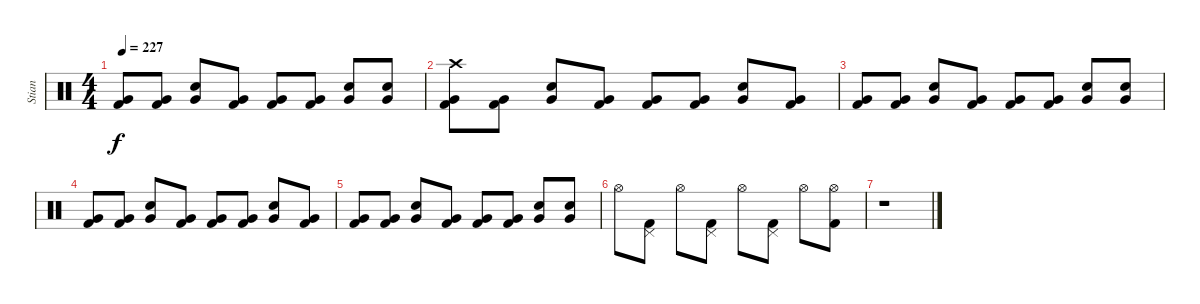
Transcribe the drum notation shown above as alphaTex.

\track ("Stian" "Stian") {instrument percussion}
\staff {score}
\articulation defaults
\ts (4 4)
\tempo 227
\clef neutral
\ks c
("Very Low Tom (hit)" "Kick (hit) 2").8{dy f} ("Very Low Tom (hit)" "Kick (hit) 2").8 ("Very Low Tom (hit)" "Electric Snare (hit)").8 ("Very Low Tom (hit)" "Kick (hit) 2").8 ("Very Low Tom (hit)" "Kick (hit) 2").8 ("Very Low Tom (hit)" "Kick (hit) 2").8 ("Very Low Tom (hit)" "Electric Snare (hit)").8 ("Very Low Tom (hit)" "Electric Snare (hit)").8 |
("Very Low Tom (hit)" "Crash high (hit)" "Kick (hit) 2").8 ("Very Low Tom (hit)" "Kick (hit) 2").8 ("Very Low Tom (hit)" "Electric Snare (hit)").8 ("Very Low Tom (hit)" "Kick (hit) 2").8 ("Very Low Tom (hit)" "Kick (hit) 2").8 ("Very Low Tom (hit)" "Kick (hit) 2").8 ("Very Low Tom (hit)" "Electric Snare (hit)").8 ("Very Low Tom (hit)" "Kick (hit) 2").8 |
("Very Low Tom (hit)" "Kick (hit) 2").8 ("Very Low Tom (hit)" "Kick (hit) 2").8 ("Very Low Tom (hit)" "Electric Snare (hit)").8 ("Very Low Tom (hit)" "Kick (hit) 2").8 ("Very Low Tom (hit)" "Kick (hit) 2").8 ("Very Low Tom (hit)" "Kick (hit) 2").8 ("Very Low Tom (hit)" "Electric Snare (hit)").8 ("Very Low Tom (hit)" "Electric Snare (hit)").8 |
("Very Low Tom (hit)" "Kick (hit) 2").8 ("Very Low Tom (hit)" "Kick (hit) 2").8 ("Very Low Tom (hit)" "Electric Snare (hit)").8 ("Very Low Tom (hit)" "Kick (hit) 2").8 ("Very Low Tom (hit)" "Kick (hit) 2").8 ("Very Low Tom (hit)" "Kick (hit) 2").8 ("Very Low Tom (hit)" "Electric Snare (hit)").8 ("Very Low Tom (hit)" "Kick (hit) 2").8 |
("Very Low Tom (hit)" "Kick (hit) 2").8 ("Very Low Tom (hit)" "Kick (hit) 2").8 ("Very Low Tom (hit)" "Electric Snare (hit)").8 ("Very Low Tom (hit)" "Kick (hit) 2").8 ("Very Low Tom (hit)" "Kick (hit) 2").8 ("Very Low Tom (hit)" "Kick (hit) 2").8 ("Very Low Tom (hit)" "Electric Snare (hit)").8 ("Very Low Tom (hit)" "Electric Snare (hit)").8 |
"Hi-Hat (open)".8 ("Pedal Hi-Hat (hit)" "Kick (hit) 2").8 "Hi-Hat (open)".8 ("Pedal Hi-Hat (hit)" "Kick (hit) 2").8 "Hi-Hat (open)".8 ("Pedal Hi-Hat (hit)" "Kick (hit) 2").8 "Hi-Hat (open)".8 ("Hi-Hat (open)" "Kick (hit) 2").8 |
r.1
